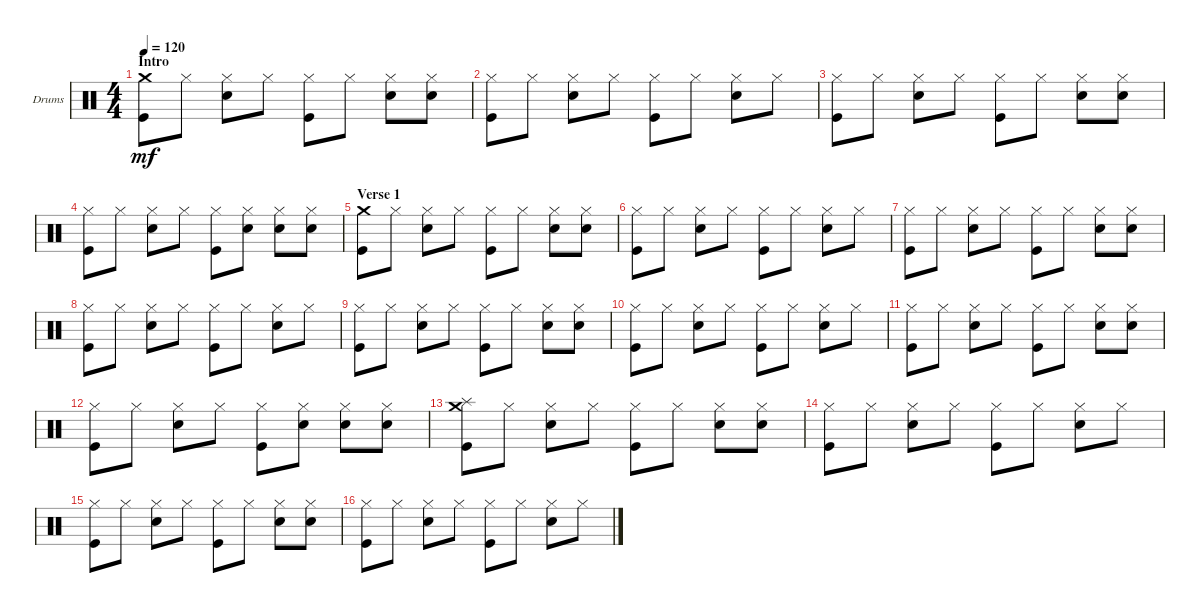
\defaultSystemsLayout 4
\bracketExtendMode groupsimilarinstruments
\firstSystemTrackNameOrientation horizontal
\otherSystemsTrackNameOrientation horizontal
\track ("Drumkit" "Drums") {instrument percussion}
\staff {score}
\articulation defaults
\ts (4 4)
\section ("" "Intro")
\tempo 120
\clef neutral
\ks c
("Kick (hit)" "Crash medium (hit)").8{dy mf} "Hi-Hat (closed)".8 ("Hi-Hat (closed)" "Snare (hit) 2").8 "Hi-Hat (closed)".8 ("Hi-Hat (closed)" "Kick (hit)").8 "Hi-Hat (closed)".8 ("Hi-Hat (closed)" "Snare (hit) 2").8 ("Hi-Hat (closed)" "Snare (hit) 2").8 |
("Hi-Hat (closed)" "Kick (hit)").8 "Hi-Hat (closed)".8 ("Hi-Hat (closed)" "Snare (hit) 2").8 "Hi-Hat (closed)".8 ("Hi-Hat (closed)" "Kick (hit)").8 "Hi-Hat (closed)".8 ("Hi-Hat (closed)" "Snare (hit) 2").8 "Hi-Hat (closed)".8 |
("Kick (hit)" "Hi-Hat (closed)").8 "Hi-Hat (closed)".8 ("Hi-Hat (closed)" "Snare (hit) 2").8 "Hi-Hat (closed)".8 ("Hi-Hat (closed)" "Kick (hit)").8 "Hi-Hat (closed)".8 ("Hi-Hat (closed)" "Snare (hit) 2").8 ("Hi-Hat (closed)" "Snare (hit) 2").8 |
("Hi-Hat (closed)" "Kick (hit)").8 "Hi-Hat (closed)".8 ("Hi-Hat (closed)" "Snare (hit) 2").8 "Hi-Hat (closed)".8 ("Hi-Hat (closed)" "Kick (hit)").8 ("Hi-Hat (closed)" "Snare (hit) 2").8 ("Hi-Hat (closed)" "Snare (hit) 2").8 ("Hi-Hat (closed)" "Snare (hit) 2").8 |
\section ("" "Verse 1")
("Kick (hit)" "Crash medium (hit)").8 "Hi-Hat (closed)".8 ("Hi-Hat (closed)" "Snare (hit) 2").8 "Hi-Hat (closed)".8 ("Hi-Hat (closed)" "Kick (hit)").8 "Hi-Hat (closed)".8 ("Hi-Hat (closed)" "Snare (hit) 2").8 ("Hi-Hat (closed)" "Snare (hit) 2").8 |
("Hi-Hat (closed)" "Kick (hit)").8 "Hi-Hat (closed)".8 ("Hi-Hat (closed)" "Snare (hit) 2").8 "Hi-Hat (closed)".8 ("Hi-Hat (closed)" "Kick (hit)").8 "Hi-Hat (closed)".8 ("Hi-Hat (closed)" "Snare (hit) 2").8 "Hi-Hat (closed)".8 |
("Kick (hit)" "Hi-Hat (closed)").8 "Hi-Hat (closed)".8 ("Hi-Hat (closed)" "Snare (hit) 2").8 "Hi-Hat (closed)".8 ("Hi-Hat (closed)" "Kick (hit)").8 "Hi-Hat (closed)".8 ("Hi-Hat (closed)" "Snare (hit) 2").8 ("Hi-Hat (closed)" "Snare (hit) 2").8 |
("Hi-Hat (closed)" "Kick (hit)").8 "Hi-Hat (closed)".8 ("Hi-Hat (closed)" "Snare (hit) 2").8 "Hi-Hat (closed)".8 ("Hi-Hat (closed)" "Kick (hit)").8 "Hi-Hat (closed)".8 ("Hi-Hat (closed)" "Snare (hit) 2").8 "Hi-Hat (closed)".8 |
("Kick (hit)" "Hi-Hat (closed)").8 "Hi-Hat (closed)".8 ("Hi-Hat (closed)" "Snare (hit) 2").8 "Hi-Hat (closed)".8 ("Hi-Hat (closed)" "Kick (hit)").8 "Hi-Hat (closed)".8 ("Hi-Hat (closed)" "Snare (hit) 2").8 ("Hi-Hat (closed)" "Snare (hit) 2").8 |
("Hi-Hat (closed)" "Kick (hit)").8 "Hi-Hat (closed)".8 ("Hi-Hat (closed)" "Snare (hit) 2").8 "Hi-Hat (closed)".8 ("Hi-Hat (closed)" "Kick (hit)").8 "Hi-Hat (closed)".8 ("Hi-Hat (closed)" "Snare (hit) 2").8 "Hi-Hat (closed)".8 |
("Kick (hit)" "Hi-Hat (closed)").8 "Hi-Hat (closed)".8 ("Hi-Hat (closed)" "Snare (hit) 2").8 "Hi-Hat (closed)".8 ("Hi-Hat (closed)" "Kick (hit)").8 "Hi-Hat (closed)".8 ("Hi-Hat (closed)" "Snare (hit) 2").8 ("Hi-Hat (closed)" "Snare (hit) 2").8 |
("Hi-Hat (closed)" "Kick (hit)").8 "Hi-Hat (closed)".8 ("Hi-Hat (closed)" "Snare (hit) 2").8 "Hi-Hat (closed)".8 ("Hi-Hat (closed)" "Kick (hit)").8 ("Hi-Hat (closed)" "Snare (hit) 2").8 ("Hi-Hat (closed)" "Snare (hit) 2").8 ("Hi-Hat (closed)" "Snare (hit) 2").8 |
("Kick (hit)" "Crash medium (hit)" "Splash (hit)").8 "Hi-Hat (closed)".8 ("Hi-Hat (closed)" "Snare (hit) 2").8 "Hi-Hat (closed)".8 ("Hi-Hat (closed)" "Kick (hit)").8 "Hi-Hat (closed)".8 ("Hi-Hat (closed)" "Snare (hit) 2").8 ("Hi-Hat (closed)" "Snare (hit) 2").8 |
("Hi-Hat (closed)" "Kick (hit)").8 "Hi-Hat (closed)".8 ("Hi-Hat (closed)" "Snare (hit) 2").8 "Hi-Hat (closed)".8 ("Hi-Hat (closed)" "Kick (hit)").8 "Hi-Hat (closed)".8 ("Hi-Hat (closed)" "Snare (hit) 2").8 "Hi-Hat (closed)".8 |
("Kick (hit)" "Hi-Hat (closed)").8 "Hi-Hat (closed)".8 ("Hi-Hat (closed)" "Snare (hit) 2").8 "Hi-Hat (closed)".8 ("Hi-Hat (closed)" "Kick (hit)").8 "Hi-Hat (closed)".8 ("Hi-Hat (closed)" "Snare (hit) 2").8 ("Hi-Hat (closed)" "Snare (hit) 2").8 |
("Hi-Hat (closed)" "Kick (hit)").8 "Hi-Hat (closed)".8 ("Hi-Hat (closed)" "Snare (hit) 2").8 "Hi-Hat (closed)".8 ("Hi-Hat (closed)" "Kick (hit)").8 "Hi-Hat (closed)".8 ("Hi-Hat (closed)" "Snare (hit) 2").8 "Hi-Hat (closed)".8
